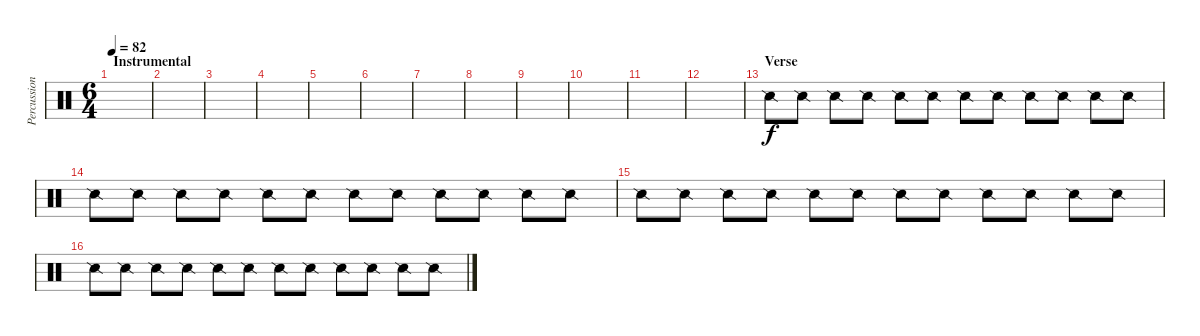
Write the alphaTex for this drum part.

\track ("Percussion" "Percussion") {instrument percussion}
\staff {score}
\articulation defaults
\ts (6 4)
\section ("" "Instrumental")
\tempo 82
\clef neutral
\ks c
|
|
|
|
|
|
|
|
|
|
|
|
\section ("" "Verse")
"Snare (side stick) 2".8 "Snare (side stick) 2".8 "Snare (side stick) 2".8 "Snare (side stick) 2".8 "Snare (side stick) 2".8 "Snare (side stick) 2".8 "Snare (side stick) 2".8 "Snare (side stick) 2".8 "Snare (side stick) 2".8 "Snare (side stick) 2".8 "Snare (side stick) 2".8 "Snare (side stick) 2".8 |
"Snare (side stick) 2".8 "Snare (side stick) 2".8 "Snare (side stick) 2".8 "Snare (side stick) 2".8 "Snare (side stick) 2".8 "Snare (side stick) 2".8 "Snare (side stick) 2".8 "Snare (side stick) 2".8 "Snare (side stick) 2".8 "Snare (side stick) 2".8 "Snare (side stick) 2".8 "Snare (side stick) 2".8 |
"Snare (side stick) 2".8 "Snare (side stick) 2".8 "Snare (side stick) 2".8 "Snare (side stick) 2".8 "Snare (side stick) 2".8 "Snare (side stick) 2".8 "Snare (side stick) 2".8 "Snare (side stick) 2".8 "Snare (side stick) 2".8 "Snare (side stick) 2".8 "Snare (side stick) 2".8 "Snare (side stick) 2".8 |
"Snare (side stick) 2".8 "Snare (side stick) 2".8 "Snare (side stick) 2".8 "Snare (side stick) 2".8 "Snare (side stick) 2".8 "Snare (side stick) 2".8 "Snare (side stick) 2".8 "Snare (side stick) 2".8 "Snare (side stick) 2".8 "Snare (side stick) 2".8 "Snare (side stick) 2".8 "Snare (side stick) 2".8
